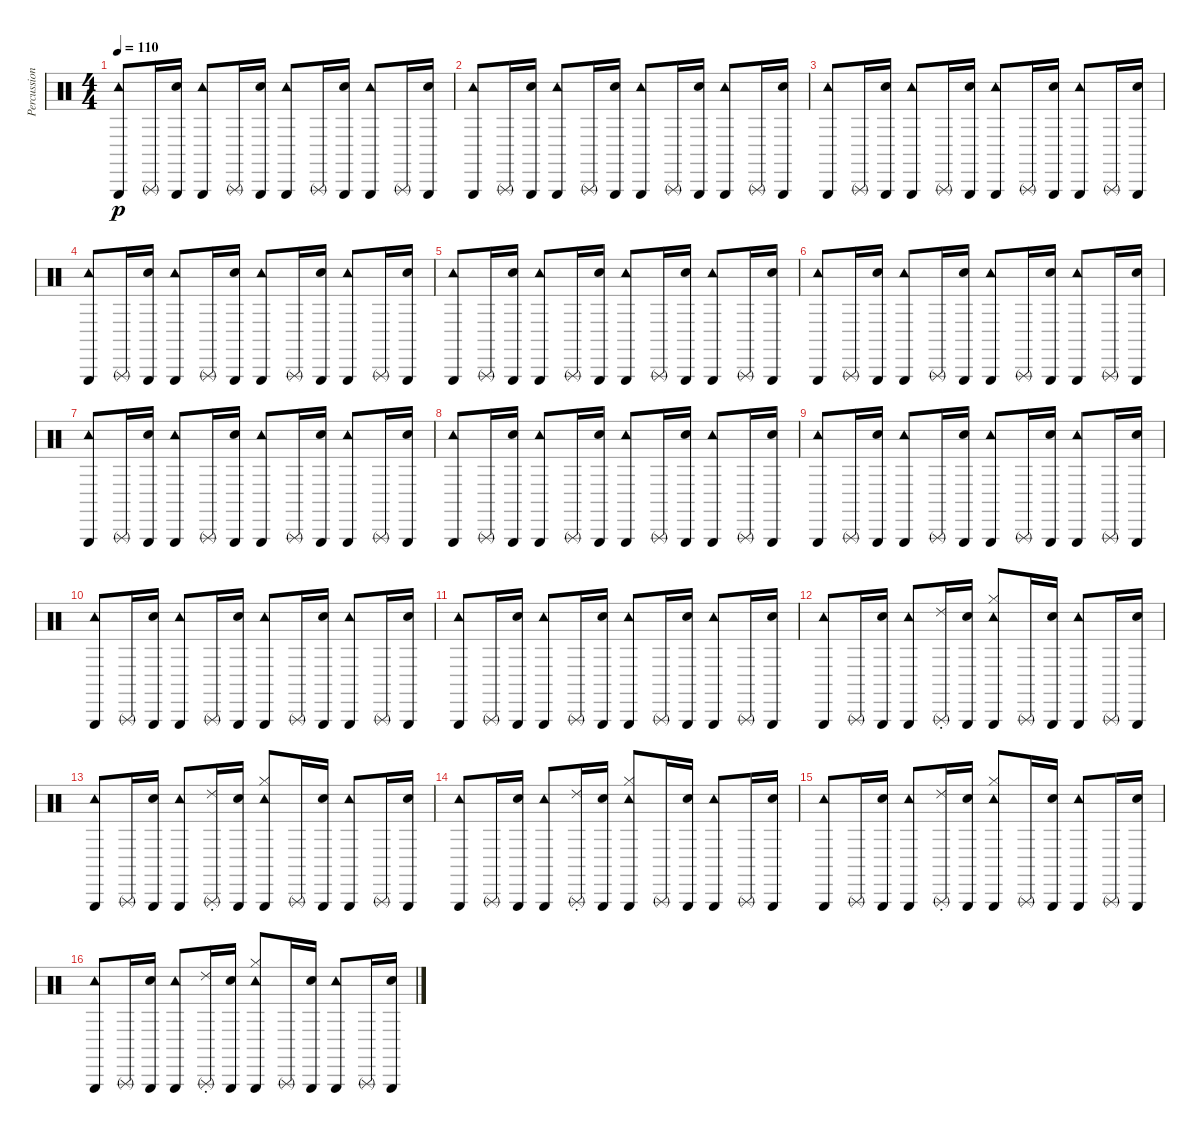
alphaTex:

\track ("Percussion" "Percussion") {instrument percussion}
\staff {score}
\articulation defaults
\ts (4 4)
\tempo 110
\clef neutral
\ks c
("Tambourine (hit)" "Triangle (hit)").8{dy p} "Triangle (rnute)".16 ("Metronome (bell)" "Triangle (hit)").16 ("Tambourine (hit)" "Triangle (hit)").8 "Triangle (rnute)".16 ("Metronome (bell)" "Triangle (hit)").16 ("Tambourine (hit)" "Triangle (hit)").8 "Triangle (rnute)".16 ("Metronome (bell)" "Triangle (hit)").16 ("Tambourine (hit)" "Triangle (hit)").8 "Triangle (rnute)".16 ("Metronome (bell)" "Triangle (hit)").16 |
("Tambourine (hit)" "Triangle (hit)").8 "Triangle (rnute)".16 ("Metronome (bell)" "Triangle (hit)").16 ("Tambourine (hit)" "Triangle (hit)").8 "Triangle (rnute)".16 ("Metronome (bell)" "Triangle (hit)").16 ("Tambourine (hit)" "Triangle (hit)").8 "Triangle (rnute)".16 ("Metronome (bell)" "Triangle (hit)").16 ("Tambourine (hit)" "Triangle (hit)").8 "Triangle (rnute)".16 ("Metronome (bell)" "Triangle (hit)").16 |
("Tambourine (hit)" "Triangle (hit)").8 "Triangle (rnute)".16 ("Metronome (bell)" "Triangle (hit)").16 ("Tambourine (hit)" "Triangle (hit)").8 "Triangle (rnute)".16 ("Metronome (bell)" "Triangle (hit)").16 ("Tambourine (hit)" "Triangle (hit)").8 "Triangle (rnute)".16 ("Metronome (bell)" "Triangle (hit)").16 ("Tambourine (hit)" "Triangle (hit)").8 "Triangle (rnute)".16 ("Metronome (bell)" "Triangle (hit)").16 |
("Tambourine (hit)" "Triangle (hit)").8 "Triangle (rnute)".16 ("Metronome (bell)" "Triangle (hit)").16 ("Tambourine (hit)" "Triangle (hit)").8 "Triangle (rnute)".16 ("Metronome (bell)" "Triangle (hit)").16 ("Tambourine (hit)" "Triangle (hit)").8 "Triangle (rnute)".16 ("Metronome (bell)" "Triangle (hit)").16 ("Tambourine (hit)" "Triangle (hit)").8 "Triangle (rnute)".16 ("Metronome (bell)" "Triangle (hit)").16 |
("Tambourine (hit)" "Triangle (hit)").8 "Triangle (rnute)".16 ("Metronome (bell)" "Triangle (hit)").16 ("Tambourine (hit)" "Triangle (hit)").8 "Triangle (rnute)".16 ("Metronome (bell)" "Triangle (hit)").16 ("Tambourine (hit)" "Triangle (hit)").8 "Triangle (rnute)".16 ("Metronome (bell)" "Triangle (hit)").16 ("Tambourine (hit)" "Triangle (hit)").8 "Triangle (rnute)".16 ("Metronome (bell)" "Triangle (hit)").16 |
("Tambourine (hit)" "Triangle (hit)").8 "Triangle (rnute)".16 ("Metronome (bell)" "Triangle (hit)").16 ("Tambourine (hit)" "Triangle (hit)").8 "Triangle (rnute)".16 ("Metronome (bell)" "Triangle (hit)").16 ("Tambourine (hit)" "Triangle (hit)").8 "Triangle (rnute)".16 ("Metronome (bell)" "Triangle (hit)").16 ("Tambourine (hit)" "Triangle (hit)").8 "Triangle (rnute)".16 ("Metronome (bell)" "Triangle (hit)").16 |
("Tambourine (hit)" "Triangle (hit)").8 "Triangle (rnute)".16 ("Metronome (bell)" "Triangle (hit)").16 ("Tambourine (hit)" "Triangle (hit)").8 "Triangle (rnute)".16 ("Metronome (bell)" "Triangle (hit)").16 ("Tambourine (hit)" "Triangle (hit)").8 "Triangle (rnute)".16 ("Metronome (bell)" "Triangle (hit)").16 ("Tambourine (hit)" "Triangle (hit)").8 "Triangle (rnute)".16 ("Metronome (bell)" "Triangle (hit)").16 |
("Tambourine (hit)" "Triangle (hit)").8 "Triangle (rnute)".16 ("Metronome (bell)" "Triangle (hit)").16 ("Tambourine (hit)" "Triangle (hit)").8 "Triangle (rnute)".16 ("Metronome (bell)" "Triangle (hit)").16 ("Tambourine (hit)" "Triangle (hit)").8 "Triangle (rnute)".16 ("Metronome (bell)" "Triangle (hit)").16 ("Tambourine (hit)" "Triangle (hit)").8 "Triangle (rnute)".16 ("Metronome (bell)" "Triangle (hit)").16 |
("Tambourine (hit)" "Triangle (hit)").8 "Triangle (rnute)".16 ("Metronome (bell)" "Triangle (hit)").16 ("Tambourine (hit)" "Triangle (hit)").8 "Triangle (rnute)".16 ("Metronome (bell)" "Triangle (hit)").16 ("Tambourine (hit)" "Triangle (hit)").8 "Triangle (rnute)".16 ("Metronome (bell)" "Triangle (hit)").16 ("Tambourine (hit)" "Triangle (hit)").8 "Triangle (rnute)".16 ("Metronome (bell)" "Triangle (hit)").16 |
("Tambourine (hit)" "Triangle (hit)").8 "Triangle (rnute)".16 ("Metronome (bell)" "Triangle (hit)").16 ("Tambourine (hit)" "Triangle (hit)").8 "Triangle (rnute)".16 ("Metronome (bell)" "Triangle (hit)").16 ("Tambourine (hit)" "Triangle (hit)").8 "Triangle (rnute)".16 ("Metronome (bell)" "Triangle (hit)").16 ("Tambourine (hit)" "Triangle (hit)").8 "Triangle (rnute)".16 ("Metronome (bell)" "Triangle (hit)").16 |
("Tambourine (hit)" "Triangle (hit)").8 "Triangle (rnute)".16 ("Metronome (bell)" "Triangle (hit)").16 ("Tambourine (hit)" "Triangle (hit)").8 "Triangle (rnute)".16 ("Metronome (bell)" "Triangle (hit)").16 ("Tambourine (hit)" "Triangle (hit)").8 "Triangle (rnute)".16 ("Metronome (bell)" "Triangle (hit)").16 ("Tambourine (hit)" "Triangle (hit)").8 "Triangle (rnute)".16 ("Metronome (bell)" "Triangle (hit)").16 |
("Tambourine (hit)" "Triangle (hit)").8 "Triangle (rnute)".16 ("Metronome (bell)" "Triangle (hit)").16 ("Tambourine (hit)" "Triangle (hit)").8 ("Triangle (rnute)" "Ride (choke) 2").16 ("Metronome (bell)" "Triangle (hit)").16 ("Tambourine (hit)" "Triangle (hit)" "Hi-Hat (closed)").8 "Triangle (rnute)".16 ("Metronome (bell)" "Triangle (hit)").16 ("Tambourine (hit)" "Triangle (hit)").8 "Triangle (rnute)".16 ("Metronome (bell)" "Triangle (hit)").16 |
("Tambourine (hit)" "Triangle (hit)").8 "Triangle (rnute)".16 ("Metronome (bell)" "Triangle (hit)").16 ("Tambourine (hit)" "Triangle (hit)").8 ("Triangle (rnute)" "Ride (choke) 2").16 ("Metronome (bell)" "Triangle (hit)").16 ("Tambourine (hit)" "Triangle (hit)" "Hi-Hat (closed)").8 "Triangle (rnute)".16 ("Metronome (bell)" "Triangle (hit)").16 ("Tambourine (hit)" "Triangle (hit)").8 "Triangle (rnute)".16 ("Metronome (bell)" "Triangle (hit)").16 |
("Tambourine (hit)" "Triangle (hit)").8 "Triangle (rnute)".16 ("Metronome (bell)" "Triangle (hit)").16 ("Tambourine (hit)" "Triangle (hit)").8 ("Triangle (rnute)" "Ride (choke) 2").16 ("Metronome (bell)" "Triangle (hit)").16 ("Tambourine (hit)" "Triangle (hit)" "Hi-Hat (closed)").8 "Triangle (rnute)".16 ("Metronome (bell)" "Triangle (hit)").16 ("Tambourine (hit)" "Triangle (hit)").8 "Triangle (rnute)".16 ("Metronome (bell)" "Triangle (hit)").16 |
("Tambourine (hit)" "Triangle (hit)").8 "Triangle (rnute)".16 ("Metronome (bell)" "Triangle (hit)").16 ("Tambourine (hit)" "Triangle (hit)").8 ("Triangle (rnute)" "Ride (choke) 2").16 ("Metronome (bell)" "Triangle (hit)").16 ("Tambourine (hit)" "Triangle (hit)" "Hi-Hat (closed)").8 "Triangle (rnute)".16 ("Metronome (bell)" "Triangle (hit)").16 ("Tambourine (hit)" "Triangle (hit)").8 "Triangle (rnute)".16 ("Metronome (bell)" "Triangle (hit)").16 |
("Tambourine (hit)" "Triangle (hit)").8 "Triangle (rnute)".16 ("Metronome (bell)" "Triangle (hit)").16 ("Tambourine (hit)" "Triangle (hit)").8 ("Triangle (rnute)" "Ride (choke) 2").16 ("Metronome (bell)" "Triangle (hit)").16 ("Tambourine (hit)" "Triangle (hit)" "Hi-Hat (closed)").8 "Triangle (rnute)".16 ("Metronome (bell)" "Triangle (hit)").16 ("Tambourine (hit)" "Triangle (hit)").8 "Triangle (rnute)".16 ("Metronome (bell)" "Triangle (hit)").16
